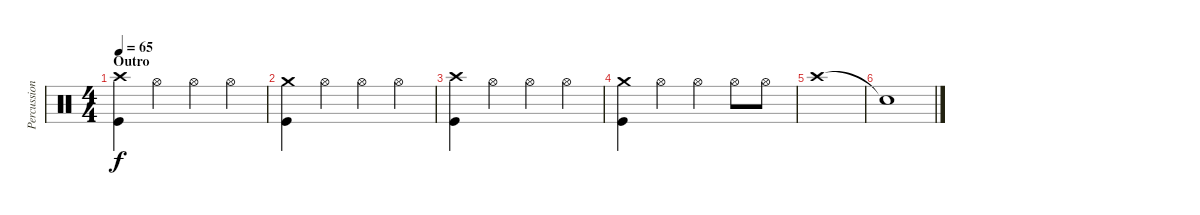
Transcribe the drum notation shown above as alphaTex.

\track ("Percussion" "Percussion") {instrument percussion}
\staff {score}
\articulation defaults
\ts (4 4)
\section ("" "Outro")
\tempo 65
\clef neutral
\ks c
("Crash high (hit)" "Kick (hit)").4{dy f} "Hi-Hat (open)".4 "Hi-Hat (open)".4 "Hi-Hat (open)".4 |
("Crash medium (hit)" "Kick (hit)").4 "Hi-Hat (open)".4 "Hi-Hat (open)".4 "Hi-Hat (open)".4 |
("Crash high (hit)" "Kick (hit)").4 "Hi-Hat (open)".4 "Hi-Hat (open)".4 "Hi-Hat (open)".4 |
("Crash medium (hit)" "Kick (hit)").4 "Hi-Hat (open)".4 "Hi-Hat (open)".4 "Hi-Hat (open)".8 "Hi-Hat (open)".8 |
"Crash high (hit)".1 |
"Snare (hit)"{t}.1
